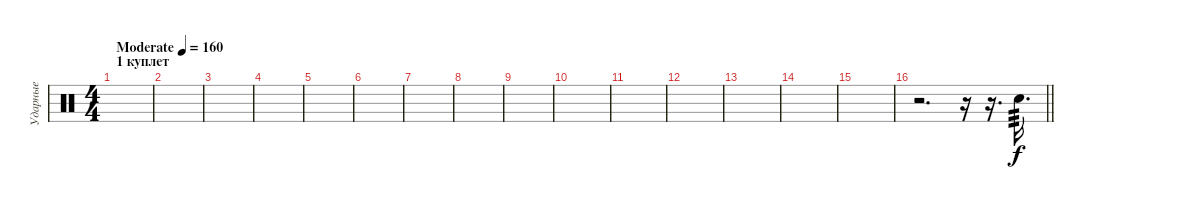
\track ("Ударные" "Ударные") {instrument percussion}
\staff {score}
\articulation defaults
\ts (4 4)
\section ("" "1 куплет")
\tempo (160 "Moderate")
\clef neutral
\ks c
|
|
|
|
|
|
|
|
|
|
|
|
|
|
|
\barLineRight lightlight
r.2{d} r.16 r.16{d} "Snare (hit) 2".16{d tp 3}
